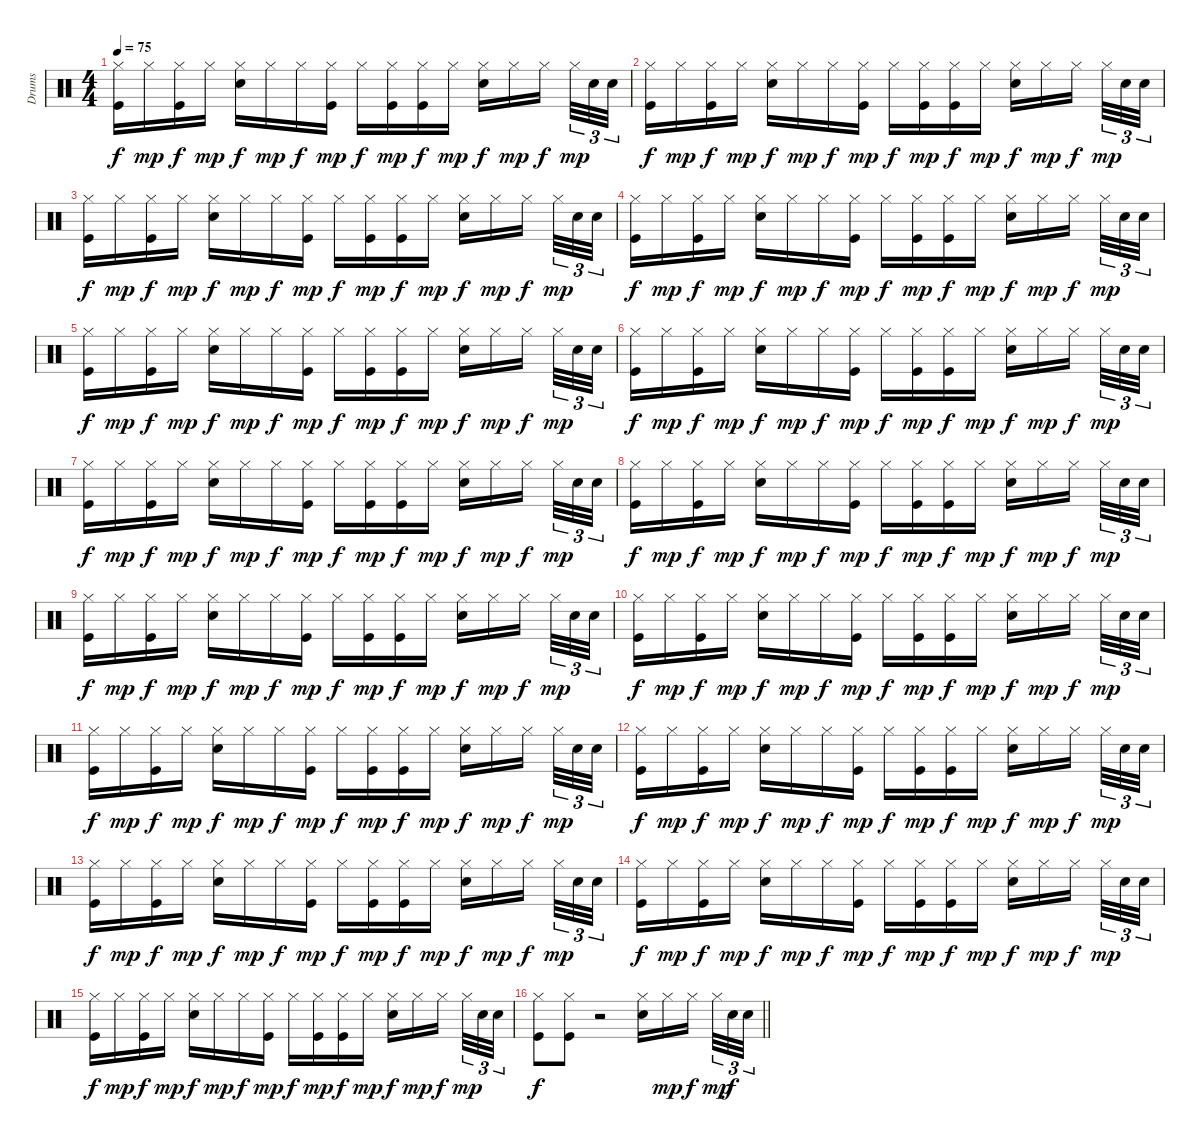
\track ("Drums" "Drums") {instrument percussion}
\staff {score}
\articulation defaults
\ts (4 4)
\tempo 75
\clef neutral
\ks c
("Hi-Hat (closed)" "Kick (hit)").16{dy f} "Hi-Hat (closed)".16{dy mp} ("Hi-Hat (closed)" "Kick (hit)").16{dy f} "Hi-Hat (closed)".16{dy mp} ("Hi-Hat (closed)" "Snare (hit) 2").16{dy f} "Hi-Hat (closed)".16{dy mp} "Hi-Hat (closed)".16{dy f} ("Hi-Hat (closed)" "Kick (hit)").16{dy mp} "Hi-Hat (closed)".16{dy f} ("Hi-Hat (closed)" "Kick (hit)").16{dy mp} ("Hi-Hat (closed)" "Kick (hit)").16{dy f} "Hi-Hat (closed)".16{dy mp} ("Hi-Hat (closed)" "Snare (hit) 2").16{dy f} "Hi-Hat (closed)".16{dy mp} "Hi-Hat (closed)".16{dy f beam splitsecondary} "Hi-Hat (closed)".32{tu (3 2) dy mp} "Snare (hit) 2".32{tu (3 2)} "Snare (hit) 2".32{tu (3 2)} |
("Hi-Hat (closed)" "Kick (hit)").16{dy f} "Hi-Hat (closed)".16{dy mp} ("Hi-Hat (closed)" "Kick (hit)").16{dy f} "Hi-Hat (closed)".16{dy mp} ("Hi-Hat (closed)" "Snare (hit) 2").16{dy f} "Hi-Hat (closed)".16{dy mp} "Hi-Hat (closed)".16{dy f} ("Hi-Hat (closed)" "Kick (hit)").16{dy mp} "Hi-Hat (closed)".16{dy f} ("Hi-Hat (closed)" "Kick (hit)").16{dy mp} ("Hi-Hat (closed)" "Kick (hit)").16{dy f} "Hi-Hat (closed)".16{dy mp} ("Hi-Hat (closed)" "Snare (hit) 2").16{dy f} "Hi-Hat (closed)".16{dy mp} "Hi-Hat (closed)".16{dy f beam splitsecondary} "Hi-Hat (closed)".32{tu (3 2) dy mp} "Snare (hit) 2".32{tu (3 2)} "Snare (hit) 2".32{tu (3 2)} |
("Hi-Hat (closed)" "Kick (hit)").16{dy f} "Hi-Hat (closed)".16{dy mp} ("Hi-Hat (closed)" "Kick (hit)").16{dy f} "Hi-Hat (closed)".16{dy mp} ("Hi-Hat (closed)" "Snare (hit) 2").16{dy f} "Hi-Hat (closed)".16{dy mp} "Hi-Hat (closed)".16{dy f} ("Hi-Hat (closed)" "Kick (hit)").16{dy mp} "Hi-Hat (closed)".16{dy f} ("Hi-Hat (closed)" "Kick (hit)").16{dy mp} ("Hi-Hat (closed)" "Kick (hit)").16{dy f} "Hi-Hat (closed)".16{dy mp} ("Hi-Hat (closed)" "Snare (hit) 2").16{dy f} "Hi-Hat (closed)".16{dy mp} "Hi-Hat (closed)".16{dy f beam splitsecondary} "Hi-Hat (closed)".32{tu (3 2) dy mp} "Snare (hit) 2".32{tu (3 2)} "Snare (hit) 2".32{tu (3 2)} |
("Hi-Hat (closed)" "Kick (hit)").16{dy f} "Hi-Hat (closed)".16{dy mp} ("Hi-Hat (closed)" "Kick (hit)").16{dy f} "Hi-Hat (closed)".16{dy mp} ("Hi-Hat (closed)" "Snare (hit) 2").16{dy f} "Hi-Hat (closed)".16{dy mp} "Hi-Hat (closed)".16{dy f} ("Hi-Hat (closed)" "Kick (hit)").16{dy mp} "Hi-Hat (closed)".16{dy f} ("Hi-Hat (closed)" "Kick (hit)").16{dy mp} ("Hi-Hat (closed)" "Kick (hit)").16{dy f} "Hi-Hat (closed)".16{dy mp} ("Hi-Hat (closed)" "Snare (hit) 2").16{dy f} "Hi-Hat (closed)".16{dy mp} "Hi-Hat (closed)".16{dy f beam splitsecondary} "Hi-Hat (closed)".32{tu (3 2) dy mp} "Snare (hit) 2".32{tu (3 2)} "Snare (hit) 2".32{tu (3 2)} |
("Hi-Hat (closed)" "Kick (hit)").16{dy f} "Hi-Hat (closed)".16{dy mp} ("Hi-Hat (closed)" "Kick (hit)").16{dy f} "Hi-Hat (closed)".16{dy mp} ("Hi-Hat (closed)" "Snare (hit) 2").16{dy f} "Hi-Hat (closed)".16{dy mp} "Hi-Hat (closed)".16{dy f} ("Hi-Hat (closed)" "Kick (hit)").16{dy mp} "Hi-Hat (closed)".16{dy f} ("Hi-Hat (closed)" "Kick (hit)").16{dy mp} ("Hi-Hat (closed)" "Kick (hit)").16{dy f} "Hi-Hat (closed)".16{dy mp} ("Hi-Hat (closed)" "Snare (hit) 2").16{dy f} "Hi-Hat (closed)".16{dy mp} "Hi-Hat (closed)".16{dy f beam splitsecondary} "Hi-Hat (closed)".32{tu (3 2) dy mp} "Snare (hit) 2".32{tu (3 2)} "Snare (hit) 2".32{tu (3 2)} |
("Hi-Hat (closed)" "Kick (hit)").16{dy f} "Hi-Hat (closed)".16{dy mp} ("Hi-Hat (closed)" "Kick (hit)").16{dy f} "Hi-Hat (closed)".16{dy mp} ("Hi-Hat (closed)" "Snare (hit) 2").16{dy f} "Hi-Hat (closed)".16{dy mp} "Hi-Hat (closed)".16{dy f} ("Hi-Hat (closed)" "Kick (hit)").16{dy mp} "Hi-Hat (closed)".16{dy f} ("Hi-Hat (closed)" "Kick (hit)").16{dy mp} ("Hi-Hat (closed)" "Kick (hit)").16{dy f} "Hi-Hat (closed)".16{dy mp} ("Hi-Hat (closed)" "Snare (hit) 2").16{dy f} "Hi-Hat (closed)".16{dy mp} "Hi-Hat (closed)".16{dy f beam splitsecondary} "Hi-Hat (closed)".32{tu (3 2) dy mp} "Snare (hit) 2".32{tu (3 2)} "Snare (hit) 2".32{tu (3 2)} |
("Hi-Hat (closed)" "Kick (hit)").16{dy f} "Hi-Hat (closed)".16{dy mp} ("Hi-Hat (closed)" "Kick (hit)").16{dy f} "Hi-Hat (closed)".16{dy mp} ("Hi-Hat (closed)" "Snare (hit) 2").16{dy f} "Hi-Hat (closed)".16{dy mp} "Hi-Hat (closed)".16{dy f} ("Hi-Hat (closed)" "Kick (hit)").16{dy mp} "Hi-Hat (closed)".16{dy f} ("Hi-Hat (closed)" "Kick (hit)").16{dy mp} ("Hi-Hat (closed)" "Kick (hit)").16{dy f} "Hi-Hat (closed)".16{dy mp} ("Hi-Hat (closed)" "Snare (hit) 2").16{dy f} "Hi-Hat (closed)".16{dy mp} "Hi-Hat (closed)".16{dy f beam splitsecondary} "Hi-Hat (closed)".32{tu (3 2) dy mp} "Snare (hit) 2".32{tu (3 2)} "Snare (hit) 2".32{tu (3 2)} |
("Hi-Hat (closed)" "Kick (hit)").16{dy f} "Hi-Hat (closed)".16{dy mp} ("Hi-Hat (closed)" "Kick (hit)").16{dy f} "Hi-Hat (closed)".16{dy mp} ("Hi-Hat (closed)" "Snare (hit) 2").16{dy f} "Hi-Hat (closed)".16{dy mp} "Hi-Hat (closed)".16{dy f} ("Hi-Hat (closed)" "Kick (hit)").16{dy mp} "Hi-Hat (closed)".16{dy f} ("Hi-Hat (closed)" "Kick (hit)").16{dy mp} ("Hi-Hat (closed)" "Kick (hit)").16{dy f} "Hi-Hat (closed)".16{dy mp} ("Hi-Hat (closed)" "Snare (hit) 2").16{dy f} "Hi-Hat (closed)".16{dy mp} "Hi-Hat (closed)".16{dy f beam splitsecondary} "Hi-Hat (closed)".32{tu (3 2) dy mp} "Snare (hit) 2".32{tu (3 2)} "Snare (hit) 2".32{tu (3 2)} |
("Hi-Hat (closed)" "Kick (hit)").16{dy f} "Hi-Hat (closed)".16{dy mp} ("Hi-Hat (closed)" "Kick (hit)").16{dy f} "Hi-Hat (closed)".16{dy mp} ("Hi-Hat (closed)" "Snare (hit) 2").16{dy f} "Hi-Hat (closed)".16{dy mp} "Hi-Hat (closed)".16{dy f} ("Hi-Hat (closed)" "Kick (hit)").16{dy mp} "Hi-Hat (closed)".16{dy f} ("Hi-Hat (closed)" "Kick (hit)").16{dy mp} ("Hi-Hat (closed)" "Kick (hit)").16{dy f} "Hi-Hat (closed)".16{dy mp} ("Hi-Hat (closed)" "Snare (hit) 2").16{dy f} "Hi-Hat (closed)".16{dy mp} "Hi-Hat (closed)".16{dy f beam splitsecondary} "Hi-Hat (closed)".32{tu (3 2) dy mp} "Snare (hit) 2".32{tu (3 2)} "Snare (hit) 2".32{tu (3 2)} |
("Hi-Hat (closed)" "Kick (hit)").16{dy f} "Hi-Hat (closed)".16{dy mp} ("Hi-Hat (closed)" "Kick (hit)").16{dy f} "Hi-Hat (closed)".16{dy mp} ("Hi-Hat (closed)" "Snare (hit) 2").16{dy f} "Hi-Hat (closed)".16{dy mp} "Hi-Hat (closed)".16{dy f} ("Hi-Hat (closed)" "Kick (hit)").16{dy mp} "Hi-Hat (closed)".16{dy f} ("Hi-Hat (closed)" "Kick (hit)").16{dy mp} ("Hi-Hat (closed)" "Kick (hit)").16{dy f} "Hi-Hat (closed)".16{dy mp} ("Hi-Hat (closed)" "Snare (hit) 2").16{dy f} "Hi-Hat (closed)".16{dy mp} "Hi-Hat (closed)".16{dy f beam splitsecondary} "Hi-Hat (closed)".32{tu (3 2) dy mp} "Snare (hit) 2".32{tu (3 2)} "Snare (hit) 2".32{tu (3 2)} |
("Hi-Hat (closed)" "Kick (hit)").16{dy f} "Hi-Hat (closed)".16{dy mp} ("Hi-Hat (closed)" "Kick (hit)").16{dy f} "Hi-Hat (closed)".16{dy mp} ("Hi-Hat (closed)" "Snare (hit) 2").16{dy f} "Hi-Hat (closed)".16{dy mp} "Hi-Hat (closed)".16{dy f} ("Hi-Hat (closed)" "Kick (hit)").16{dy mp} "Hi-Hat (closed)".16{dy f} ("Hi-Hat (closed)" "Kick (hit)").16{dy mp} ("Hi-Hat (closed)" "Kick (hit)").16{dy f} "Hi-Hat (closed)".16{dy mp} ("Hi-Hat (closed)" "Snare (hit) 2").16{dy f} "Hi-Hat (closed)".16{dy mp} "Hi-Hat (closed)".16{dy f beam splitsecondary} "Hi-Hat (closed)".32{tu (3 2) dy mp} "Snare (hit) 2".32{tu (3 2)} "Snare (hit) 2".32{tu (3 2)} |
("Hi-Hat (closed)" "Kick (hit)").16{dy f} "Hi-Hat (closed)".16{dy mp} ("Hi-Hat (closed)" "Kick (hit)").16{dy f} "Hi-Hat (closed)".16{dy mp} ("Hi-Hat (closed)" "Snare (hit) 2").16{dy f} "Hi-Hat (closed)".16{dy mp} "Hi-Hat (closed)".16{dy f} ("Hi-Hat (closed)" "Kick (hit)").16{dy mp} "Hi-Hat (closed)".16{dy f} ("Hi-Hat (closed)" "Kick (hit)").16{dy mp} ("Hi-Hat (closed)" "Kick (hit)").16{dy f} "Hi-Hat (closed)".16{dy mp} ("Hi-Hat (closed)" "Snare (hit) 2").16{dy f} "Hi-Hat (closed)".16{dy mp} "Hi-Hat (closed)".16{dy f beam splitsecondary} "Hi-Hat (closed)".32{tu (3 2) dy mp} "Snare (hit) 2".32{tu (3 2)} "Snare (hit) 2".32{tu (3 2)} |
("Hi-Hat (closed)" "Kick (hit)").16{dy f} "Hi-Hat (closed)".16{dy mp} ("Hi-Hat (closed)" "Kick (hit)").16{dy f} "Hi-Hat (closed)".16{dy mp} ("Hi-Hat (closed)" "Snare (hit) 2").16{dy f} "Hi-Hat (closed)".16{dy mp} "Hi-Hat (closed)".16{dy f} ("Hi-Hat (closed)" "Kick (hit)").16{dy mp} "Hi-Hat (closed)".16{dy f} ("Hi-Hat (closed)" "Kick (hit)").16{dy mp} ("Hi-Hat (closed)" "Kick (hit)").16{dy f} "Hi-Hat (closed)".16{dy mp} ("Hi-Hat (closed)" "Snare (hit) 2").16{dy f} "Hi-Hat (closed)".16{dy mp} "Hi-Hat (closed)".16{dy f beam splitsecondary} "Hi-Hat (closed)".32{tu (3 2) dy mp} "Snare (hit) 2".32{tu (3 2)} "Snare (hit) 2".32{tu (3 2)} |
("Hi-Hat (closed)" "Kick (hit)").16{dy f} "Hi-Hat (closed)".16{dy mp} ("Hi-Hat (closed)" "Kick (hit)").16{dy f} "Hi-Hat (closed)".16{dy mp} ("Hi-Hat (closed)" "Snare (hit) 2").16{dy f} "Hi-Hat (closed)".16{dy mp} "Hi-Hat (closed)".16{dy f} ("Hi-Hat (closed)" "Kick (hit)").16{dy mp} "Hi-Hat (closed)".16{dy f} ("Hi-Hat (closed)" "Kick (hit)").16{dy mp} ("Hi-Hat (closed)" "Kick (hit)").16{dy f} "Hi-Hat (closed)".16{dy mp} ("Hi-Hat (closed)" "Snare (hit) 2").16{dy f} "Hi-Hat (closed)".16{dy mp} "Hi-Hat (closed)".16{dy f beam splitsecondary} "Hi-Hat (closed)".32{tu (3 2) dy mp} "Snare (hit) 2".32{tu (3 2)} "Snare (hit) 2".32{tu (3 2)} |
("Hi-Hat (closed)" "Kick (hit)").16{dy f} "Hi-Hat (closed)".16{dy mp} ("Hi-Hat (closed)" "Kick (hit)").16{dy f} "Hi-Hat (closed)".16{dy mp} ("Hi-Hat (closed)" "Snare (hit) 2").16{dy f} "Hi-Hat (closed)".16{dy mp} "Hi-Hat (closed)".16{dy f} ("Hi-Hat (closed)" "Kick (hit)").16{dy mp} "Hi-Hat (closed)".16{dy f} ("Hi-Hat (closed)" "Kick (hit)").16{dy mp} ("Hi-Hat (closed)" "Kick (hit)").16{dy f} "Hi-Hat (closed)".16{dy mp} ("Hi-Hat (closed)" "Snare (hit) 2").16{dy f} "Hi-Hat (closed)".16{dy mp} "Hi-Hat (closed)".16{dy f beam splitsecondary} "Hi-Hat (closed)".32{tu (3 2) dy mp} "Snare (hit) 2".32{tu (3 2)} "Snare (hit) 2".32{tu (3 2)} |
\barLineRight lightlight
("Hi-Hat (closed)" "Kick (hit)").8{dy f} ("Hi-Hat (closed)" "Kick (hit)").8 r.2 ("Hi-Hat (closed)" "Snare (hit) 2").16 "Hi-Hat (closed)".16{dy mp} "Hi-Hat (closed)".16{dy f beam splitsecondary} "Hi-Hat (closed)".32{tu (3 2) dy mp} "Snare (hit) 2".32{tu (3 2) dy f} "Snare (hit) 2".32{tu (3 2)}
